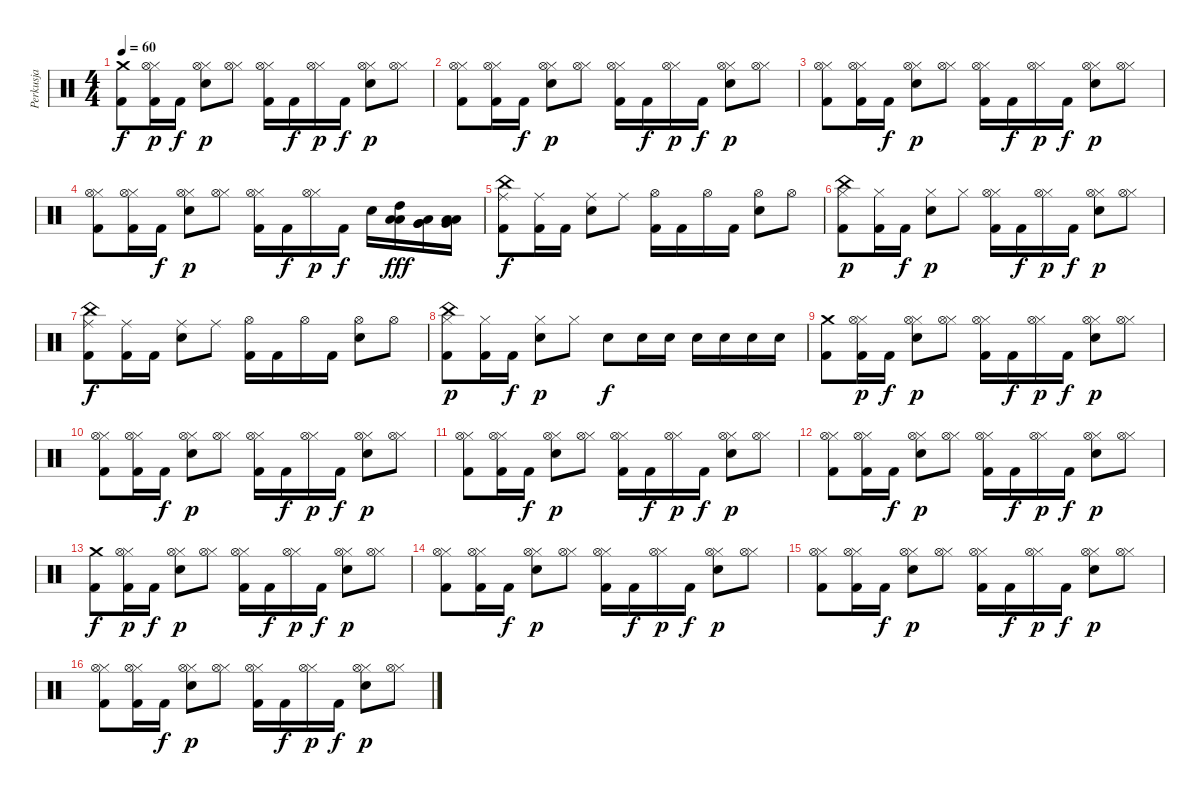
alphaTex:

\track ("Perkusja" "Perkusja") {instrument percussion}
\staff {score}
\articulation defaults
\ts (4 4)
\tempo 60
\clef neutral
\ks c
("Kick (hit) 2" "Crash medium (hit)").8{dy f} ("Kick (hit) 2" "Hi-Hat (closed)" "Hi-Hat (open)").16{dy p} "Kick (hit) 2".16{dy f} ("Electric Snare (hit)" "Hi-Hat (closed)" "Hi-Hat (open)").8{dy p} ("Hi-Hat (closed)" "Hi-Hat (open)").8 ("Kick (hit) 2" "Hi-Hat (closed)" "Hi-Hat (open)").16 "Kick (hit) 2".16{dy f} ("Hi-Hat (closed)" "Hi-Hat (open)").16{dy p} "Kick (hit) 2".16{dy f} ("Electric Snare (hit)" "Hi-Hat (closed)" "Hi-Hat (open)").8{dy p} ("Hi-Hat (closed)" "Hi-Hat (open)").8 |
("Kick (hit) 2" "Hi-Hat (closed)" "Hi-Hat (open)").8 ("Kick (hit) 2" "Hi-Hat (closed)" "Hi-Hat (open)").16 "Kick (hit) 2".16{dy f} ("Electric Snare (hit)" "Hi-Hat (closed)" "Hi-Hat (open)").8{dy p} ("Hi-Hat (closed)" "Hi-Hat (open)").8 ("Kick (hit) 2" "Hi-Hat (closed)" "Hi-Hat (open)").16 "Kick (hit) 2".16{dy f} ("Hi-Hat (closed)" "Hi-Hat (open)").16{dy p} "Kick (hit) 2".16{dy f} ("Electric Snare (hit)" "Hi-Hat (closed)" "Hi-Hat (open)").8{dy p} ("Hi-Hat (closed)" "Hi-Hat (open)").8 |
("Kick (hit) 2" "Hi-Hat (closed)" "Hi-Hat (open)").8 ("Kick (hit) 2" "Hi-Hat (closed)" "Hi-Hat (open)").16 "Kick (hit) 2".16{dy f} ("Electric Snare (hit)" "Hi-Hat (closed)" "Hi-Hat (open)").8{dy p} ("Hi-Hat (closed)" "Hi-Hat (open)").8 ("Kick (hit) 2" "Hi-Hat (closed)" "Hi-Hat (open)").16 "Kick (hit) 2".16{dy f} ("Hi-Hat (closed)" "Hi-Hat (open)").16{dy p} "Kick (hit) 2".16{dy f} ("Electric Snare (hit)" "Hi-Hat (closed)" "Hi-Hat (open)").8{dy p} ("Hi-Hat (closed)" "Hi-Hat (open)").8 |
("Kick (hit) 2" "Hi-Hat (closed)" "Hi-Hat (open)").8 ("Kick (hit) 2" "Hi-Hat (closed)" "Hi-Hat (open)").16 "Kick (hit) 2".16{dy f} ("Electric Snare (hit)" "Hi-Hat (closed)" "Hi-Hat (open)").8{dy p} ("Hi-Hat (closed)" "Hi-Hat (open)").8 ("Kick (hit) 2" "Hi-Hat (closed)" "Hi-Hat (open)").16 "Kick (hit) 2".16{dy f} ("Hi-Hat (closed)" "Hi-Hat (open)").16{dy p} "Kick (hit) 2".16{dy f} "Electric Snare (hit)".16 ("High Tom (hit)" "Low Tom (hit)" "Low Tom (hit)").16{dy fff} ("Low Tom (hit)" "Very Low Tom (hit)" "Very Low Tom (hit)").16 ("Very Low Tom (hit)" "Low Floor Tom (hit)" "Low Floor Tom (hit)").16 |
("Kick (hit) 2" "Ride (middle)" "China (hit)").8{dy f} ("Kick (hit) 2" "Ride (middle)").16 "Kick (hit) 2".16 ("Electric Snare (hit)" "Ride (middle)").8 "Ride (middle)".8 ("Kick (hit) 2" "Hi-Hat (open)").16 "Kick (hit) 2".16 "Hi-Hat (open)".16 "Kick (hit) 2".16 ("Electric Snare (hit)" "Hi-Hat (open)").8 "Hi-Hat (open)".8 |
("Kick (hit) 2" "Hi-Hat (closed)" "China (hit)").8{dy p} ("Kick (hit) 2" "Hi-Hat (closed)").16 "Kick (hit) 2".16{dy f} ("Electric Snare (hit)" "Hi-Hat (closed)").8{dy p} "Hi-Hat (closed)".8 ("Kick (hit) 2" "Hi-Hat (closed)" "Hi-Hat (open)").16 "Kick (hit) 2".16{dy f} ("Hi-Hat (closed)" "Hi-Hat (open)").16{dy p} "Kick (hit) 2".16{dy f} ("Electric Snare (hit)" "Hi-Hat (closed)" "Hi-Hat (open)").8{dy p} ("Hi-Hat (closed)" "Hi-Hat (open)").8 |
("Kick (hit) 2" "Ride (middle)" "China (hit)").8{dy f} ("Kick (hit) 2" "Ride (middle)").16 "Kick (hit) 2".16 ("Electric Snare (hit)" "Ride (middle)").8 "Ride (middle)".8 ("Kick (hit) 2" "Hi-Hat (open)").16 "Kick (hit) 2".16 "Hi-Hat (open)".16 "Kick (hit) 2".16 ("Electric Snare (hit)" "Hi-Hat (open)").8 "Hi-Hat (open)".8 |
("Kick (hit) 2" "Hi-Hat (closed)" "China (hit)").8{dy p} ("Kick (hit) 2" "Hi-Hat (closed)").16 "Kick (hit) 2".16{dy f} ("Electric Snare (hit)" "Hi-Hat (closed)").8{dy p} "Hi-Hat (closed)".8 "Electric Snare (hit)".8{dy f} "Electric Snare (hit)".16 "Electric Snare (hit)".16 "Electric Snare (hit)".16 "Electric Snare (hit)".16 "Electric Snare (hit)".16 "Electric Snare (hit)".16 |
("Kick (hit) 2" "Crash medium (hit)").8 ("Kick (hit) 2" "Hi-Hat (closed)" "Hi-Hat (open)").16{dy p} "Kick (hit) 2".16{dy f} ("Electric Snare (hit)" "Hi-Hat (closed)" "Hi-Hat (open)").8{dy p} ("Hi-Hat (closed)" "Hi-Hat (open)").8 ("Kick (hit) 2" "Hi-Hat (closed)" "Hi-Hat (open)").16 "Kick (hit) 2".16{dy f} ("Hi-Hat (closed)" "Hi-Hat (open)").16{dy p} "Kick (hit) 2".16{dy f} ("Electric Snare (hit)" "Hi-Hat (closed)" "Hi-Hat (open)").8{dy p} ("Hi-Hat (closed)" "Hi-Hat (open)").8 |
("Kick (hit) 2" "Hi-Hat (closed)" "Hi-Hat (open)").8 ("Kick (hit) 2" "Hi-Hat (closed)" "Hi-Hat (open)").16 "Kick (hit) 2".16{dy f} ("Electric Snare (hit)" "Hi-Hat (closed)" "Hi-Hat (open)").8{dy p} ("Hi-Hat (closed)" "Hi-Hat (open)").8 ("Kick (hit) 2" "Hi-Hat (closed)" "Hi-Hat (open)").16 "Kick (hit) 2".16{dy f} ("Hi-Hat (closed)" "Hi-Hat (open)").16{dy p} "Kick (hit) 2".16{dy f} ("Electric Snare (hit)" "Hi-Hat (closed)" "Hi-Hat (open)").8{dy p} ("Hi-Hat (closed)" "Hi-Hat (open)").8 |
("Kick (hit) 2" "Hi-Hat (closed)" "Hi-Hat (open)").8 ("Kick (hit) 2" "Hi-Hat (closed)" "Hi-Hat (open)").16 "Kick (hit) 2".16{dy f} ("Electric Snare (hit)" "Hi-Hat (closed)" "Hi-Hat (open)").8{dy p} ("Hi-Hat (closed)" "Hi-Hat (open)").8 ("Kick (hit) 2" "Hi-Hat (closed)" "Hi-Hat (open)").16 "Kick (hit) 2".16{dy f} ("Hi-Hat (closed)" "Hi-Hat (open)").16{dy p} "Kick (hit) 2".16{dy f} ("Electric Snare (hit)" "Hi-Hat (closed)" "Hi-Hat (open)").8{dy p} ("Hi-Hat (closed)" "Hi-Hat (open)").8 |
("Kick (hit) 2" "Hi-Hat (closed)" "Hi-Hat (open)").8 ("Kick (hit) 2" "Hi-Hat (closed)" "Hi-Hat (open)").16 "Kick (hit) 2".16{dy f} ("Electric Snare (hit)" "Hi-Hat (closed)" "Hi-Hat (open)").8{dy p} ("Hi-Hat (closed)" "Hi-Hat (open)").8 ("Kick (hit) 2" "Hi-Hat (closed)" "Hi-Hat (open)").16 "Kick (hit) 2".16{dy f} ("Hi-Hat (closed)" "Hi-Hat (open)").16{dy p} "Kick (hit) 2".16{dy f} ("Electric Snare (hit)" "Hi-Hat (closed)" "Hi-Hat (open)").8{dy p} ("Hi-Hat (closed)" "Hi-Hat (open)").8 |
("Kick (hit) 2" "Crash medium (hit)").8{dy f} ("Kick (hit) 2" "Hi-Hat (closed)" "Hi-Hat (open)").16{dy p} "Kick (hit) 2".16{dy f} ("Electric Snare (hit)" "Hi-Hat (closed)" "Hi-Hat (open)").8{dy p} ("Hi-Hat (closed)" "Hi-Hat (open)").8 ("Kick (hit) 2" "Hi-Hat (closed)" "Hi-Hat (open)").16 "Kick (hit) 2".16{dy f} ("Hi-Hat (closed)" "Hi-Hat (open)").16{dy p} "Kick (hit) 2".16{dy f} ("Electric Snare (hit)" "Hi-Hat (closed)" "Hi-Hat (open)").8{dy p} ("Hi-Hat (closed)" "Hi-Hat (open)").8 |
("Kick (hit) 2" "Hi-Hat (closed)" "Hi-Hat (open)").8 ("Kick (hit) 2" "Hi-Hat (closed)" "Hi-Hat (open)").16 "Kick (hit) 2".16{dy f} ("Electric Snare (hit)" "Hi-Hat (closed)" "Hi-Hat (open)").8{dy p} ("Hi-Hat (closed)" "Hi-Hat (open)").8 ("Kick (hit) 2" "Hi-Hat (closed)" "Hi-Hat (open)").16 "Kick (hit) 2".16{dy f} ("Hi-Hat (closed)" "Hi-Hat (open)").16{dy p} "Kick (hit) 2".16{dy f} ("Electric Snare (hit)" "Hi-Hat (closed)" "Hi-Hat (open)").8{dy p} ("Hi-Hat (closed)" "Hi-Hat (open)").8 |
("Kick (hit) 2" "Hi-Hat (closed)" "Hi-Hat (open)").8 ("Kick (hit) 2" "Hi-Hat (closed)" "Hi-Hat (open)").16 "Kick (hit) 2".16{dy f} ("Electric Snare (hit)" "Hi-Hat (closed)" "Hi-Hat (open)").8{dy p} ("Hi-Hat (closed)" "Hi-Hat (open)").8 ("Kick (hit) 2" "Hi-Hat (closed)" "Hi-Hat (open)").16 "Kick (hit) 2".16{dy f} ("Hi-Hat (closed)" "Hi-Hat (open)").16{dy p} "Kick (hit) 2".16{dy f} ("Electric Snare (hit)" "Hi-Hat (closed)" "Hi-Hat (open)").8{dy p} ("Hi-Hat (closed)" "Hi-Hat (open)").8 |
("Kick (hit) 2" "Hi-Hat (closed)" "Hi-Hat (open)").8 ("Kick (hit) 2" "Hi-Hat (closed)" "Hi-Hat (open)").16 "Kick (hit) 2".16{dy f} ("Electric Snare (hit)" "Hi-Hat (closed)" "Hi-Hat (open)").8{dy p} ("Hi-Hat (closed)" "Hi-Hat (open)").8 ("Kick (hit) 2" "Hi-Hat (closed)" "Hi-Hat (open)").16 "Kick (hit) 2".16{dy f} ("Hi-Hat (closed)" "Hi-Hat (open)").16{dy p} "Kick (hit) 2".16{dy f} ("Electric Snare (hit)" "Hi-Hat (closed)" "Hi-Hat (open)").8{dy p} ("Hi-Hat (closed)" "Hi-Hat (open)").8
